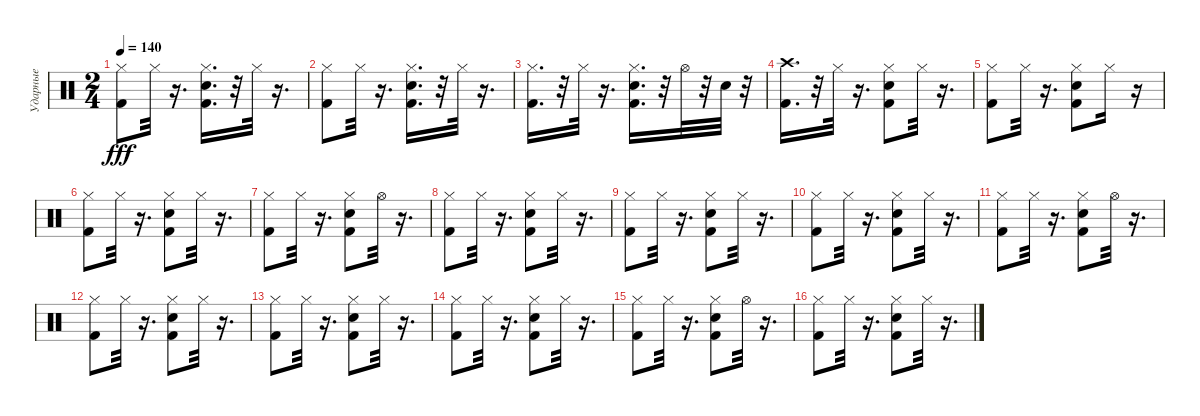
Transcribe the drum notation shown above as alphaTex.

\track ("Ударные" "Ударные") {instrument percussion}
\staff {score}
\articulation defaults
\ts (2 4)
\tempo 140
\clef neutral
\ks c
("Kick (hit) 2" "Hi-Hat (closed)").8{dy fff} "Hi-Hat (closed)".32 r.16{d} ("Kick (hit) 2" "Hi-Hat (closed)" "Snare (hit) 2").16{d} r.32 "Hi-Hat (closed)".32 r.16{d} |
("Kick (hit) 2" "Hi-Hat (closed)").8 "Hi-Hat (closed)".32 r.16{d} ("Kick (hit) 2" "Hi-Hat (closed)" "Snare (hit) 2").16{d} r.32 "Hi-Hat (closed)".32 r.16{d} |
("Kick (hit) 2" "Hi-Hat (closed)").16{d} r.32 "Hi-Hat (closed)".32 r.16{d} ("Hi-Hat (closed)" "Snare (hit) 2" "Kick (hit) 2").16{d} r.32 "Hi-Hat (open)".32 r.32 "Snare (hit) 2".32 r.32 |
("Kick (hit) 2" "Crash high (hit)").16{d} r.32 "Hi-Hat (closed)".32 r.16{d} ("Kick (hit) 2" "Snare (hit) 2" "Hi-Hat (closed)").8 "Hi-Hat (closed)".32 r.16{d} |
("Kick (hit) 2" "Hi-Hat (closed)").8 "Hi-Hat (closed)".32 r.16{d} ("Kick (hit) 2" "Hi-Hat (closed)" "Snare (hit) 2").8 "Hi-Hat (closed)".16 r.16 |
("Kick (hit) 2" "Hi-Hat (closed)").8 "Hi-Hat (closed)".32 r.16{d} ("Snare (hit) 2" "Kick (hit) 2" "Hi-Hat (closed)").8 "Hi-Hat (closed)".32 r.16{d} |
("Kick (hit) 2" "Hi-Hat (closed)").8 "Hi-Hat (closed)".32 r.16{d} ("Kick (hit) 2" "Snare (hit) 2" "Hi-Hat (closed)").8 "Hi-Hat (open)".32 r.16{d} |
("Kick (hit) 2" "Hi-Hat (closed)").8 "Hi-Hat (closed)".32 r.16{d} ("Snare (hit) 2" "Kick (hit) 2" "Hi-Hat (closed)").8 "Hi-Hat (closed)".32 r.16{d} |
("Kick (hit) 2" "Hi-Hat (closed)").8 "Hi-Hat (closed)".32 r.16{d} ("Snare (hit) 2" "Kick (hit) 2" "Hi-Hat (closed)").8 "Hi-Hat (closed)".32 r.16{d} |
("Kick (hit) 2" "Hi-Hat (closed)").8 "Hi-Hat (closed)".32 r.16{d} ("Snare (hit) 2" "Kick (hit) 2" "Hi-Hat (closed)").8 "Hi-Hat (closed)".32 r.16{d} |
("Kick (hit) 2" "Hi-Hat (closed)").8 "Hi-Hat (closed)".32 r.16{d} ("Snare (hit) 2" "Kick (hit) 2" "Hi-Hat (closed)").8 "Hi-Hat (open)".32 r.16{d} |
("Kick (hit) 2" "Hi-Hat (closed)").8 "Hi-Hat (closed)".32 r.16{d} ("Snare (hit) 2" "Kick (hit) 2" "Hi-Hat (closed)").8 "Hi-Hat (closed)".32 r.16{d} |
("Kick (hit) 2" "Hi-Hat (closed)").8 "Hi-Hat (closed)".32 r.16{d} ("Snare (hit) 2" "Kick (hit) 2" "Hi-Hat (closed)").8 "Hi-Hat (closed)".32 r.16{d} |
("Kick (hit) 2" "Hi-Hat (closed)").8 "Hi-Hat (closed)".32 r.16{d} ("Snare (hit) 2" "Kick (hit) 2" "Hi-Hat (closed)").8 "Hi-Hat (closed)".32 r.16{d} |
("Kick (hit) 2" "Hi-Hat (closed)").8 "Hi-Hat (closed)".32 r.16{d} ("Hi-Hat (closed)" "Snare (hit) 2" "Kick (hit) 2").8 "Hi-Hat (open)".32 r.16{d} |
("Kick (hit) 2" "Hi-Hat (closed)").8 "Hi-Hat (closed)".32 r.16{d} ("Snare (hit) 2" "Kick (hit) 2" "Hi-Hat (closed)").8 "Hi-Hat (closed)".32 r.16{d}
